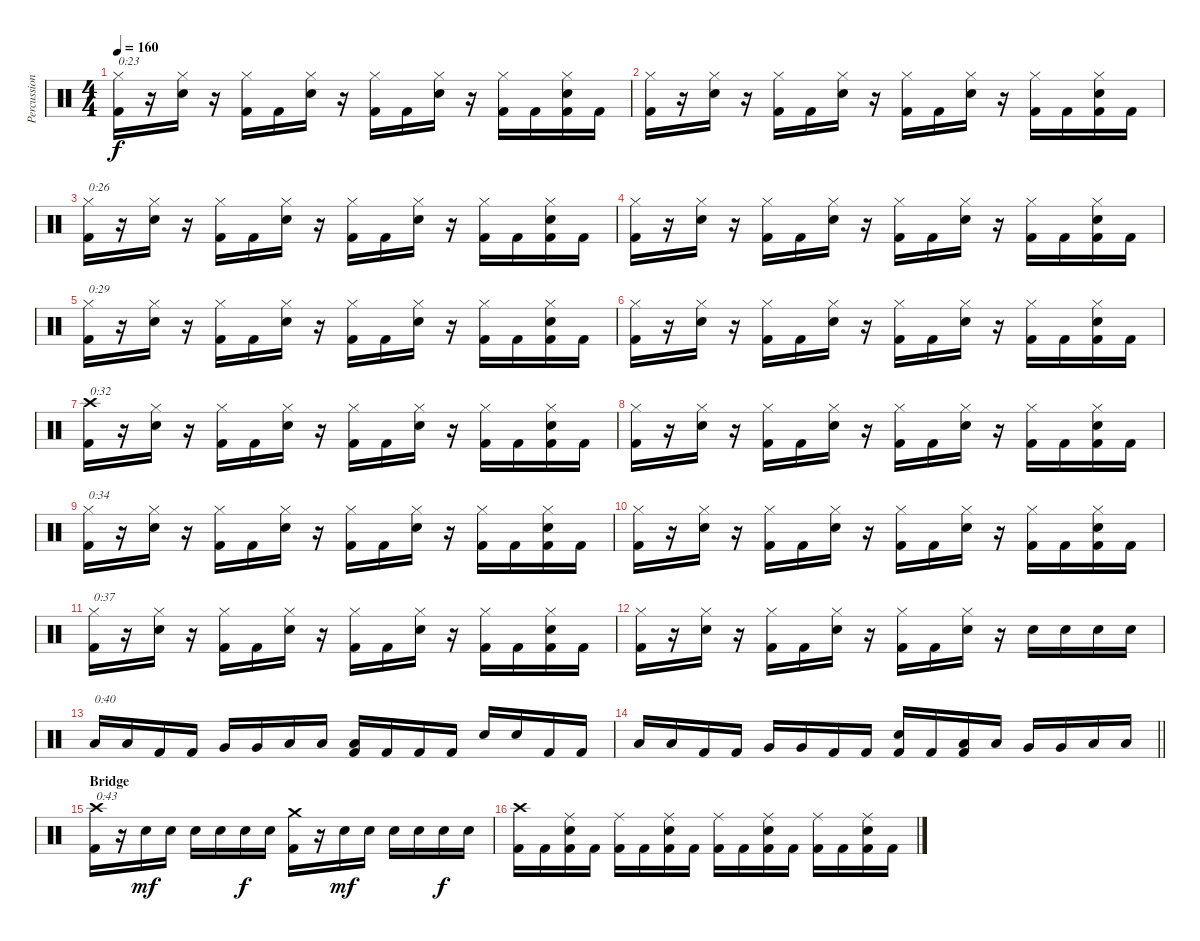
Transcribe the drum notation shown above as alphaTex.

\track ("Percussion" "Percussion") {instrument percussion}
\staff {score}
\articulation defaults
\ts (4 4)
\tempo 160
\clef neutral
\ks c
("Hi-Hat (closed)" "Kick (hit) 2").16{txt "0:23" dy f} r.16 ("Hi-Hat (closed)" "Electric Snare (hit)").16 r.16 ("Hi-Hat (closed)" "Kick (hit) 2").16 "Kick (hit) 2".16 ("Hi-Hat (closed)" "Electric Snare (hit)").16 r.16 ("Hi-Hat (closed)" "Kick (hit) 2").16 "Kick (hit) 2".16 ("Hi-Hat (closed)" "Electric Snare (hit)").16 r.16 ("Hi-Hat (closed)" "Kick (hit) 2").16 "Kick (hit) 2".16 ("Hi-Hat (closed)" "Electric Snare (hit)" "Kick (hit) 2").16 "Kick (hit) 2".16 |
("Hi-Hat (closed)" "Kick (hit) 2").16 r.16 ("Hi-Hat (closed)" "Electric Snare (hit)").16 r.16 ("Hi-Hat (closed)" "Kick (hit) 2").16 "Kick (hit) 2".16 ("Hi-Hat (closed)" "Electric Snare (hit)").16 r.16 ("Hi-Hat (closed)" "Kick (hit) 2").16 "Kick (hit) 2".16 ("Hi-Hat (closed)" "Electric Snare (hit)").16 r.16 ("Hi-Hat (closed)" "Kick (hit) 2").16 "Kick (hit) 2".16 ("Hi-Hat (closed)" "Electric Snare (hit)" "Kick (hit) 2").16 "Kick (hit) 2".16 |
("Hi-Hat (closed)" "Kick (hit) 2").16{txt "0:26"} r.16 ("Hi-Hat (closed)" "Electric Snare (hit)").16 r.16 ("Hi-Hat (closed)" "Kick (hit) 2").16 "Kick (hit) 2".16 ("Hi-Hat (closed)" "Electric Snare (hit)").16 r.16 ("Hi-Hat (closed)" "Kick (hit) 2").16 "Kick (hit) 2".16 ("Hi-Hat (closed)" "Electric Snare (hit)").16 r.16 ("Hi-Hat (closed)" "Kick (hit) 2").16 "Kick (hit) 2".16 ("Hi-Hat (closed)" "Electric Snare (hit)" "Kick (hit) 2").16 "Kick (hit) 2".16 |
("Hi-Hat (closed)" "Kick (hit) 2").16 r.16 ("Hi-Hat (closed)" "Electric Snare (hit)").16 r.16 ("Hi-Hat (closed)" "Kick (hit) 2").16 "Kick (hit) 2".16 ("Hi-Hat (closed)" "Electric Snare (hit)").16 r.16 ("Hi-Hat (closed)" "Kick (hit) 2").16 "Kick (hit) 2".16 ("Hi-Hat (closed)" "Electric Snare (hit)").16 r.16 ("Hi-Hat (closed)" "Kick (hit) 2").16 "Kick (hit) 2".16 ("Hi-Hat (closed)" "Electric Snare (hit)" "Kick (hit) 2").16 "Kick (hit) 2".16 |
("Hi-Hat (closed)" "Kick (hit) 2").16{txt "0:29"} r.16 ("Hi-Hat (closed)" "Electric Snare (hit)").16 r.16 ("Hi-Hat (closed)" "Kick (hit) 2").16 "Kick (hit) 2".16 ("Hi-Hat (closed)" "Electric Snare (hit)").16 r.16 ("Hi-Hat (closed)" "Kick (hit) 2").16 "Kick (hit) 2".16 ("Hi-Hat (closed)" "Electric Snare (hit)").16 r.16 ("Hi-Hat (closed)" "Kick (hit) 2").16 "Kick (hit) 2".16 ("Hi-Hat (closed)" "Electric Snare (hit)" "Kick (hit) 2").16 "Kick (hit) 2".16 |
("Hi-Hat (closed)" "Kick (hit) 2").16 r.16 ("Hi-Hat (closed)" "Electric Snare (hit)").16 r.16 ("Hi-Hat (closed)" "Kick (hit) 2").16 "Kick (hit) 2".16 ("Hi-Hat (closed)" "Electric Snare (hit)").16 r.16 ("Hi-Hat (closed)" "Kick (hit) 2").16 "Kick (hit) 2".16 ("Hi-Hat (closed)" "Electric Snare (hit)").16 r.16 ("Hi-Hat (closed)" "Kick (hit) 2").16 "Kick (hit) 2".16 ("Hi-Hat (closed)" "Electric Snare (hit)" "Kick (hit) 2").16 "Kick (hit) 2".16 |
("Crash high (hit)" "Kick (hit) 2").16{txt "0:32"} r.16 ("Hi-Hat (closed)" "Electric Snare (hit)").16 r.16 ("Hi-Hat (closed)" "Kick (hit) 2").16 "Kick (hit) 2".16 ("Hi-Hat (closed)" "Electric Snare (hit)").16 r.16 ("Hi-Hat (closed)" "Kick (hit) 2").16 "Kick (hit) 2".16 ("Hi-Hat (closed)" "Electric Snare (hit)").16 r.16 ("Hi-Hat (closed)" "Kick (hit) 2").16 "Kick (hit) 2".16 ("Hi-Hat (closed)" "Electric Snare (hit)" "Kick (hit) 2").16 "Kick (hit) 2".16 |
("Hi-Hat (closed)" "Kick (hit) 2").16 r.16 ("Hi-Hat (closed)" "Electric Snare (hit)").16 r.16 ("Hi-Hat (closed)" "Kick (hit) 2").16 "Kick (hit) 2".16 ("Hi-Hat (closed)" "Electric Snare (hit)").16 r.16 ("Hi-Hat (closed)" "Kick (hit) 2").16 "Kick (hit) 2".16 ("Hi-Hat (closed)" "Electric Snare (hit)").16 r.16 ("Hi-Hat (closed)" "Kick (hit) 2").16 "Kick (hit) 2".16 ("Hi-Hat (closed)" "Electric Snare (hit)" "Kick (hit) 2").16 "Kick (hit) 2".16 |
("Hi-Hat (closed)" "Kick (hit) 2").16{txt "0:34"} r.16 ("Hi-Hat (closed)" "Electric Snare (hit)").16 r.16 ("Hi-Hat (closed)" "Kick (hit) 2").16 "Kick (hit) 2".16 ("Hi-Hat (closed)" "Electric Snare (hit)").16 r.16 ("Hi-Hat (closed)" "Kick (hit) 2").16 "Kick (hit) 2".16 ("Hi-Hat (closed)" "Electric Snare (hit)").16 r.16 ("Hi-Hat (closed)" "Kick (hit) 2").16 "Kick (hit) 2".16 ("Hi-Hat (closed)" "Electric Snare (hit)" "Kick (hit) 2").16 "Kick (hit) 2".16 |
("Hi-Hat (closed)" "Kick (hit) 2").16 r.16 ("Hi-Hat (closed)" "Electric Snare (hit)").16 r.16 ("Hi-Hat (closed)" "Kick (hit) 2").16 "Kick (hit) 2".16 ("Hi-Hat (closed)" "Electric Snare (hit)").16 r.16 ("Hi-Hat (closed)" "Kick (hit) 2").16 "Kick (hit) 2".16 ("Hi-Hat (closed)" "Electric Snare (hit)").16 r.16 ("Hi-Hat (closed)" "Kick (hit) 2").16 "Kick (hit) 2".16 ("Hi-Hat (closed)" "Electric Snare (hit)" "Kick (hit) 2").16 "Kick (hit) 2".16 |
("Hi-Hat (closed)" "Kick (hit) 2").16{txt "0:37"} r.16 ("Hi-Hat (closed)" "Electric Snare (hit)").16 r.16 ("Hi-Hat (closed)" "Kick (hit) 2").16 "Kick (hit) 2".16 ("Hi-Hat (closed)" "Electric Snare (hit)").16 r.16 ("Hi-Hat (closed)" "Kick (hit) 2").16 "Kick (hit) 2".16 ("Hi-Hat (closed)" "Electric Snare (hit)").16 r.16 ("Hi-Hat (closed)" "Kick (hit) 2").16 "Kick (hit) 2".16 ("Hi-Hat (closed)" "Electric Snare (hit)" "Kick (hit) 2").16 "Kick (hit) 2".16 |
("Hi-Hat (closed)" "Kick (hit) 2").16 r.16 ("Hi-Hat (closed)" "Electric Snare (hit)").16 r.16 ("Hi-Hat (closed)" "Kick (hit) 2").16 "Kick (hit) 2".16 ("Hi-Hat (closed)" "Electric Snare (hit)").16 r.16 ("Hi-Hat (closed)" "Kick (hit) 2").16 "Kick (hit) 2".16 ("Hi-Hat (closed)" "Electric Snare (hit)").16 r.16 "Electric Snare (hit)".16 "Electric Snare (hit)".16 "Electric Snare (hit)".16 "Electric Snare (hit)".16 |
"Low Floor Tom (hit)".16{txt "0:40"} "Low Floor Tom (hit)".16 "Kick (hit) 2".16 "Kick (hit) 2".16 "Very Low Tom (hit)".16 "Very Low Tom (hit)".16 "Low Floor Tom (hit)".16 "Low Floor Tom (hit)".16 ("Low Floor Tom (hit)" "Kick (hit) 2").16 "Kick (hit) 2".16 "Kick (hit) 2".16 "Kick (hit) 2".16 "Electric Snare (hit)".16 "Electric Snare (hit)".16 "Kick (hit) 2".16 "Kick (hit) 2".16 |
\barLineRight lightlight "Low Tom (hit)".16 "Low Tom (hit)".16 "Kick (hit) 2".16 "Kick (hit) 2".16 "Very Low Tom (hit)".16 "Very Low Tom (hit)".16 "Kick (hit) 2".16 "Kick (hit) 2".16
("Electric Snare (hit)" "Kick (hit) 2").16 "Kick (hit) 2".16 ("Low Tom (hit)" "Kick (hit) 2").16 "Low Tom (hit)".16 "Very Low Tom (hit)".16 "Very Low Tom (hit)".16 "Low Floor Tom (hit)".16 "Low Floor Tom (hit)".16 |
\section ("" "Bridge")
("Crash high (hit)" "Kick (hit) 2").16{txt "0:43"} r.16 "Electric Snare (hit)".16{dy mf} "Electric Snare (hit)".16 "Electric Snare (hit)".16 "Electric Snare (hit)".16 "Electric Snare (hit)".16{dy f} "Electric Snare (hit)".16 ("Crash medium (hit)" "Kick (hit) 2").16 r.16 "Electric Snare (hit)".16{dy mf} "Electric Snare (hit)".16 "Electric Snare (hit)".16 "Electric Snare (hit)".16 "Electric Snare (hit)".16{dy f} "Electric Snare (hit)".16 |
("Crash high (hit)" "Kick (hit) 2").16 "Kick (hit) 2".16 ("Ride (middle)" "Electric Snare (hit)" "Kick (hit) 2").16 "Kick (hit) 2".16 ("Ride (middle)" "Kick (hit) 2").16 "Kick (hit) 2".16 ("Ride (middle)" "Electric Snare (hit)" "Kick (hit) 2").16 "Kick (hit) 2".16 ("Ride (middle)" "Kick (hit) 2").16 "Kick (hit) 2".16 ("Ride (middle)" "Electric Snare (hit)" "Kick (hit) 2").16 "Kick (hit) 2".16 ("Ride (middle)" "Kick (hit) 2").16 "Kick (hit) 2".16 ("Ride (middle)" "Electric Snare (hit)" "Kick (hit) 2").16 "Kick (hit) 2".16
